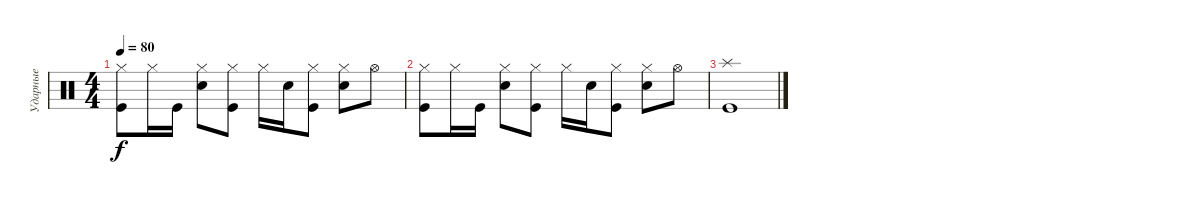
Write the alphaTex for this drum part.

\track ("Ударные" "Ударные") {instrument percussion}
\staff {score}
\articulation defaults
\ts (4 4)
\tempo 80
\clef neutral
\ks c
("Hi-Hat (closed)" "Kick (hit)").8{dy f} "Hi-Hat (closed)".16 "Kick (hit)".16 ("Hi-Hat (closed)" "Electric Snare (hit)").8 ("Hi-Hat (closed)" "Kick (hit)").8 "Hi-Hat (closed)".16 "Electric Snare (hit)".16 ("Hi-Hat (closed)" "Kick (hit)").8 ("Hi-Hat (closed)" "Electric Snare (hit)").8 "Hi-Hat (open)".8 |
("Hi-Hat (closed)" "Kick (hit)").8 "Hi-Hat (closed)".16 "Kick (hit)".16 ("Hi-Hat (closed)" "Electric Snare (hit)").8 ("Hi-Hat (closed)" "Kick (hit)").8 "Hi-Hat (closed)".16 "Electric Snare (hit)".16 ("Hi-Hat (closed)" "Kick (hit)").8 ("Hi-Hat (closed)" "Electric Snare (hit)").8 "Hi-Hat (open)".8 |
("Splash (hit)" "Kick (hit)").1
